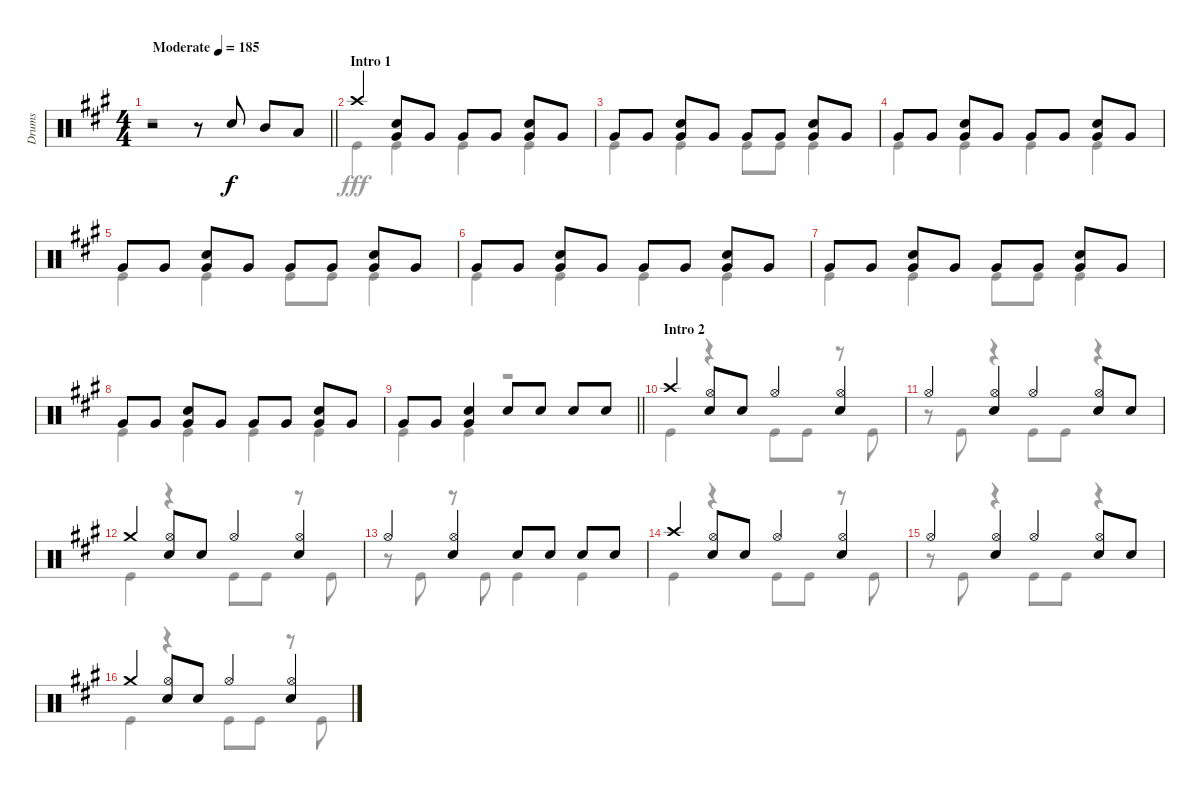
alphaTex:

\track ("Drums" "Drums") {instrument percussion}
\staff {score}
\articulation defaults
\voice
\ts (4 4)
\tempo (185 "Moderate")
\clef neutral
\barLineRight lightlight
\ks a
r.2{dy f} r.8 "Snare (hit) 2".8 "Mid Tom (hit)".8 "Low Tom (hit)".8 |
\section ("" "Intro 1")
"Crash high (hit)".4 ("Snare (hit) 2" "Very Low Tom (hit)").8 "Very Low Tom (hit)".8 "Very Low Tom (hit)".8 "Very Low Tom (hit)".8 ("Snare (hit) 2" "Very Low Tom (hit)").8 "Very Low Tom (hit)".8 |
"Very Low Tom (hit)".8 "Very Low Tom (hit)".8 ("Snare (hit) 2" "Very Low Tom (hit)").8 "Very Low Tom (hit)".8 "Very Low Tom (hit)".8 "Very Low Tom (hit)".8 ("Snare (hit) 2" "Very Low Tom (hit)").8 "Very Low Tom (hit)".8 |
"Very Low Tom (hit)".8 "Very Low Tom (hit)".8 ("Snare (hit) 2" "Very Low Tom (hit)").8 "Very Low Tom (hit)".8 "Very Low Tom (hit)".8 "Very Low Tom (hit)".8 ("Snare (hit) 2" "Very Low Tom (hit)").8 "Very Low Tom (hit)".8 |
"Very Low Tom (hit)".8 "Very Low Tom (hit)".8 ("Snare (hit) 2" "Very Low Tom (hit)").8 "Very Low Tom (hit)".8 "Very Low Tom (hit)".8 "Very Low Tom (hit)".8 ("Snare (hit) 2" "Very Low Tom (hit)").8 "Very Low Tom (hit)".8 |
"Very Low Tom (hit)".8 "Very Low Tom (hit)".8 ("Snare (hit) 2" "Very Low Tom (hit)").8 "Very Low Tom (hit)".8 "Very Low Tom (hit)".8 "Very Low Tom (hit)".8 ("Snare (hit) 2" "Very Low Tom (hit)").8 "Very Low Tom (hit)".8 |
"Very Low Tom (hit)".8 "Very Low Tom (hit)".8 ("Snare (hit) 2" "Very Low Tom (hit)").8 "Very Low Tom (hit)".8 "Very Low Tom (hit)".8 "Very Low Tom (hit)".8 ("Snare (hit) 2" "Very Low Tom (hit)").8 "Very Low Tom (hit)".8 |
"Very Low Tom (hit)".8 "Very Low Tom (hit)".8 ("Snare (hit) 2" "Very Low Tom (hit)").8 "Very Low Tom (hit)".8 "Very Low Tom (hit)".8 "Very Low Tom (hit)".8 ("Snare (hit) 2" "Very Low Tom (hit)").8 "Very Low Tom (hit)".8 |
\barLineRight lightlight "Very Low Tom (hit)".8 "Very Low Tom (hit)".8
("Snare (hit) 2" "Very Low Tom (hit)").4 "Snare (hit) 2".8 "Snare (hit) 2".8 "Snare (hit) 2".8 "Snare (hit) 2".8 |
\section ("" "Intro 2")
"Crash high (hit)".4 ("Hi-Hat (open)" "Snare (hit) 2").8 "Snare (hit) 2".8 "Hi-Hat (open)".4 ("Hi-Hat (open)" "Snare (hit) 2").4 |
"Hi-Hat (open)".4 ("Hi-Hat (open)" "Snare (hit) 2").4 "Hi-Hat (open)".4 ("Hi-Hat (open)" "Snare (hit) 2").8 "Snare (hit) 2".8 |
"Crash medium (hit)".4 ("Hi-Hat (open)" "Snare (hit) 2").8 "Snare (hit) 2".8 "Hi-Hat (open)".4 ("Hi-Hat (open)" "Snare (hit) 2").4 |
"Hi-Hat (open)".4 ("Hi-Hat (open)" "Snare (hit) 2").4 "Snare (hit) 2".8 "Snare (hit) 2".8 "Snare (hit) 2".8 "Snare (hit) 2".8 |
"Crash high (hit)".4 ("Hi-Hat (open)" "Snare (hit) 2").8 "Snare (hit) 2".8 "Hi-Hat (open)".4 ("Hi-Hat (open)" "Snare (hit) 2").4 |
"Hi-Hat (open)".4 ("Hi-Hat (open)" "Snare (hit) 2").4 "Hi-Hat (open)".4 ("Hi-Hat (open)" "Snare (hit) 2").8 "Snare (hit) 2".8 |
"Crash medium (hit)".4 ("Hi-Hat (open)" "Snare (hit) 2").8 "Snare (hit) 2".8 "Hi-Hat (open)".4 ("Hi-Hat (open)" "Snare (hit) 2").4
\voice
\clef neutral
\ottava regular
\simile none
\barLineRight lightlight
\ks a
r.1{dy fff} |
"Kick (hit)".4 "Kick (hit)".4 "Kick (hit)".4 "Kick (hit)".4 |
"Kick (hit)".4 "Kick (hit)".4 "Kick (hit)".8 "Kick (hit)".8 "Kick (hit)".4 |
"Kick (hit)".4 "Kick (hit)".4 "Kick (hit)".4 "Kick (hit)".4 |
"Kick (hit)".4 "Kick (hit)".4 "Kick (hit)".8 "Kick (hit)".8 "Kick (hit)".4 |
"Kick (hit)".4 "Kick (hit)".4 "Kick (hit)".4 "Kick (hit)".4 |
"Kick (hit)".4 "Kick (hit)".4 "Kick (hit)".8 "Kick (hit)".8 "Kick (hit)".4 |
"Kick (hit)".4 "Kick (hit)".4 "Kick (hit)".4 "Kick (hit)".4 |
\barLineRight lightlight "Kick (hit)".4 "Kick (hit)".4
r.2 |
"Kick (hit)".4 r.4 "Kick (hit)".8 "Kick (hit)".8 r.8 "Kick (hit)".8 |
r.8 "Kick (hit)".8 r.4 "Kick (hit)".8 "Kick (hit)".8 r.4 |
"Kick (hit)".4 r.4 "Kick (hit)".8 "Kick (hit)".8 r.8 "Kick (hit)".8 |
r.8 "Kick (hit)".8 r.8 "Kick (hit)".8 "Kick (hit)".4 "Kick (hit)".4 |
"Kick (hit)".4 r.4 "Kick (hit)".8 "Kick (hit)".8 r.8 "Kick (hit)".8 |
r.8 "Kick (hit)".8 r.4 "Kick (hit)".8 "Kick (hit)".8 r.4 |
"Kick (hit)".4 r.4 "Kick (hit)".8 "Kick (hit)".8 r.8 "Kick (hit)".8
